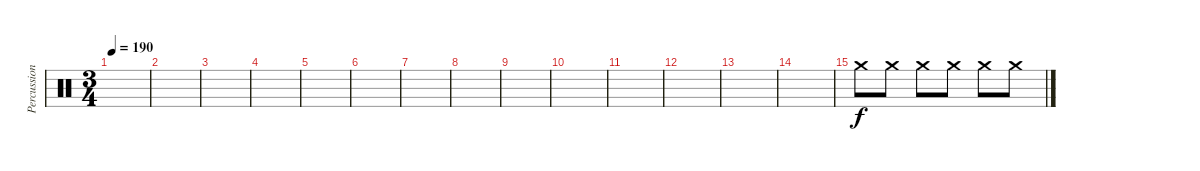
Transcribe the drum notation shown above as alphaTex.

\track ("Percussion" "Percussion") {instrument percussion}
\staff {score}
\articulation defaults
\ts (3 4)
\tempo 190
\clef neutral
\ks c
|
|
|
|
|
|
|
|
|
|
|
|
|
|
"Crash medium (hit)".8{volume 6} "Crash medium (hit)".8 "Crash medium (hit)".8{volume 11} "Crash medium (hit)".8 "Crash medium (hit)".8{volume 8} "Crash medium (hit)".8
